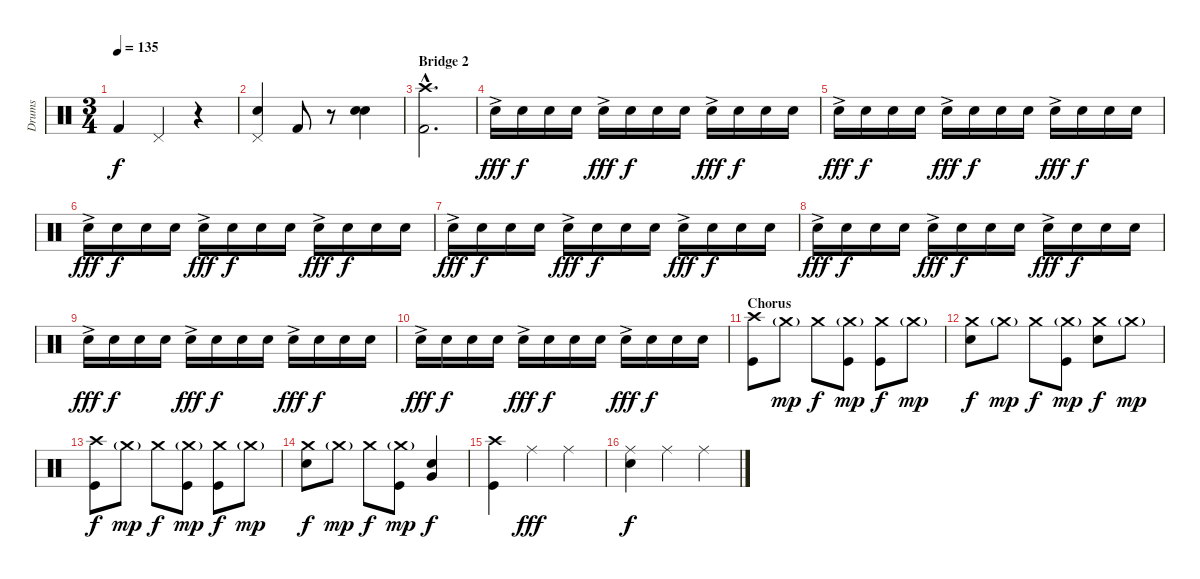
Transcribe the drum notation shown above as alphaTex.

\track ("Drums" "Drums") {instrument percussion}
\staff {score}
\articulation defaults
\ts (3 4)
\tempo 135
\clef neutral
\ks c "Kick (hit) 2".4{dy f} "Pedal Hi-Hat (hit)".4
r.4 |
("Pedal Hi-Hat (hit)" "Snare (hit) 2").4 "Kick (hit) 2".8 r.8 ("Snare (hit) 2" "Snare (hit) 2").4{bu 60} |
\section ("" "Bridge 2")
("Crash high (hit)"{hac} "Kick (hit) 2"{hac}).2{d} |
"Snare (hit) 2"{ac}.16{dy fff volume 0} "Snare (hit) 2".16{dy f volume 14} "Snare (hit) 2".16 "Snare (hit) 2".16 "Snare (hit) 2"{ac}.16{dy fff} "Snare (hit) 2".16{dy f} "Snare (hit) 2".16 "Snare (hit) 2".16 "Snare (hit) 2"{ac}.16{dy fff} "Snare (hit) 2".16{dy f} "Snare (hit) 2".16 "Snare (hit) 2".16 |
"Snare (hit) 2"{ac}.16{dy fff} "Snare (hit) 2".16{dy f} "Snare (hit) 2".16 "Snare (hit) 2".16 "Snare (hit) 2"{ac}.16{dy fff} "Snare (hit) 2".16{dy f} "Snare (hit) 2".16 "Snare (hit) 2".16 "Snare (hit) 2"{ac}.16{dy fff} "Snare (hit) 2".16{dy f} "Snare (hit) 2".16 "Snare (hit) 2".16 |
"Snare (hit) 2"{ac}.16{dy fff} "Snare (hit) 2".16{dy f} "Snare (hit) 2".16 "Snare (hit) 2".16 "Snare (hit) 2"{ac}.16{dy fff} "Snare (hit) 2".16{dy f} "Snare (hit) 2".16 "Snare (hit) 2".16 "Snare (hit) 2"{ac}.16{dy fff} "Snare (hit) 2".16{dy f} "Snare (hit) 2".16 "Snare (hit) 2".16 |
"Snare (hit) 2"{ac}.16{dy fff} "Snare (hit) 2".16{dy f} "Snare (hit) 2".16 "Snare (hit) 2".16 "Snare (hit) 2"{ac}.16{dy fff} "Snare (hit) 2".16{dy f} "Snare (hit) 2".16 "Snare (hit) 2".16 "Snare (hit) 2"{ac}.16{dy fff} "Snare (hit) 2".16{dy f} "Snare (hit) 2".16 "Snare (hit) 2".16 |
"Snare (hit) 2"{ac}.16{dy fff} "Snare (hit) 2".16{dy f} "Snare (hit) 2".16 "Snare (hit) 2".16 "Snare (hit) 2"{ac}.16{dy fff} "Snare (hit) 2".16{dy f} "Snare (hit) 2".16 "Snare (hit) 2".16 "Snare (hit) 2"{ac}.16{dy fff} "Snare (hit) 2".16{dy f} "Snare (hit) 2".16 "Snare (hit) 2".16 |
"Snare (hit) 2"{ac}.16{dy fff} "Snare (hit) 2".16{dy f} "Snare (hit) 2".16 "Snare (hit) 2".16 "Snare (hit) 2"{ac}.16{dy fff} "Snare (hit) 2".16{dy f} "Snare (hit) 2".16 "Snare (hit) 2".16 "Snare (hit) 2"{ac}.16{dy fff} "Snare (hit) 2".16{dy f} "Snare (hit) 2".16 "Snare (hit) 2".16 |
"Snare (hit) 2"{ac}.16{dy fff} "Snare (hit) 2".16{dy f} "Snare (hit) 2".16 "Snare (hit) 2".16 "Snare (hit) 2"{ac}.16{dy fff} "Snare (hit) 2".16{dy f} "Snare (hit) 2".16 "Snare (hit) 2".16 "Snare (hit) 2"{ac}.16{dy fff} "Snare (hit) 2".16{dy f} "Snare (hit) 2".16 "Snare (hit) 2".16 |
\section ("" "Chorus")
("Crash high (hit)" "Kick (hit)").8 "Crash medium (hit)"{g}.8{dy mp} "Crash medium (hit)".8{dy f} ("Crash medium (hit)"{g} "Kick (hit)").8{dy mp} ("Crash medium (hit)" "Kick (hit)").8{dy f} "Crash medium (hit)"{g}.8{dy mp} |
("Crash medium (hit)" "Snare (hit) 2").8{dy f} "Crash medium (hit)"{g}.8{dy mp} "Crash medium (hit)".8{dy f} ("Crash medium (hit)"{g} "Kick (hit)").8{dy mp} ("Crash medium (hit)" "Snare (hit) 2").8{dy f} "Crash medium (hit)"{g}.8{dy mp} |
("Crash high (hit)" "Kick (hit)").8{dy f} "Crash medium (hit)"{g}.8{dy mp} "Crash medium (hit)".8{dy f} ("Crash medium (hit)"{g} "Kick (hit)").8{dy mp} ("Crash medium (hit)" "Kick (hit)").8{dy f} "Crash medium (hit)"{g}.8{dy mp} |
("Crash medium (hit)" "Snare (hit) 2").8{dy f} "Crash medium (hit)"{g}.8{dy mp} "Crash medium (hit)".8{dy f} ("Crash medium (hit)"{g} "Kick (hit)").8{dy mp} ("Very Low Tom (hit)" "Snare (hit) 2").4{dy f} |
("Crash high (hit)" "Kick (hit)").4 "Ride (middle)".4{dy fff} "Ride (middle)".4 |
("Ride (middle)" "Snare (hit) 2").4{dy f} "Ride (middle)".4 "Ride (middle)".4
